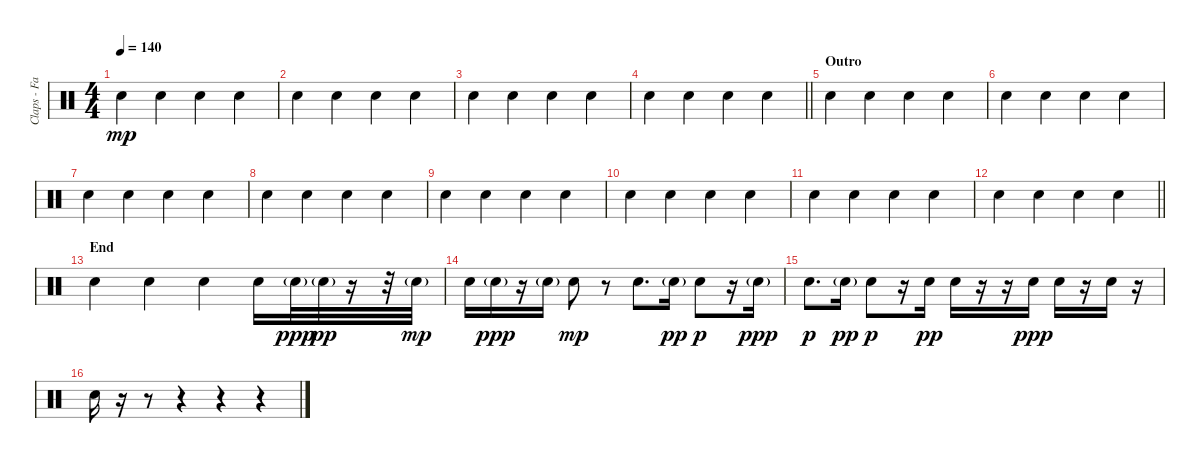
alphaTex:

\track ("Claps - Fans" "Claps - Fa") {instrument percussion}
\staff {score}
\articulation defaults
\ts (4 4)
\tempo 140
\clef neutral
\ks c "Hand Clap (hit)".4{dy mp} "Hand Clap (hit)".4 "Hand Clap (hit)".4 "Hand Clap (hit)".4
|
"Hand Clap (hit)".4 "Hand Clap (hit)".4 "Hand Clap (hit)".4 "Hand Clap (hit)".4 |
"Hand Clap (hit)".4 "Hand Clap (hit)".4 "Hand Clap (hit)".4 "Hand Clap (hit)".4 |
\barLineRight lightlight "Hand Clap (hit)".4 "Hand Clap (hit)".4 "Hand Clap (hit)".4 "Hand Clap (hit)".4
|
\section ("" "Outro")
"Hand Clap (hit)".4 "Hand Clap (hit)".4 "Hand Clap (hit)".4 "Hand Clap (hit)".4 |
"Hand Clap (hit)".4 "Hand Clap (hit)".4 "Hand Clap (hit)".4 "Hand Clap (hit)".4 |
"Hand Clap (hit)".4 "Hand Clap (hit)".4 "Hand Clap (hit)".4 "Hand Clap (hit)".4 |
"Hand Clap (hit)".4 "Hand Clap (hit)".4 "Hand Clap (hit)".4 "Hand Clap (hit)".4 |
"Hand Clap (hit)".4 "Hand Clap (hit)".4 "Hand Clap (hit)".4 "Hand Clap (hit)".4 |
"Hand Clap (hit)".4 "Hand Clap (hit)".4 "Hand Clap (hit)".4 "Hand Clap (hit)".4 |
"Hand Clap (hit)".4 "Hand Clap (hit)".4 "Hand Clap (hit)".4 "Hand Clap (hit)".4 |
\barLineRight lightlight "Hand Clap (hit)".4 "Hand Clap (hit)".4 "Hand Clap (hit)".4 "Hand Clap (hit)".4
|
\section ("" "End")
"Hand Clap (hit)".4 "Hand Clap (hit)".4 "Hand Clap (hit)".4 "Hand Clap (hit)".16 "Hand Clap (hit)"{g}.32{dy ppp} "Hand Clap (hit)"{g}.32{dy pp} r.16 r.32 "Hand Clap (hit)"{g}.32{dy mp} |
"Hand Clap (hit)".16 "Hand Clap (hit)"{g}.16{dy ppp} r.16 "Hand Clap (hit)"{g}.16 "Hand Clap (hit)".8{dy mp} r.8 "Hand Clap (hit)".8{d} "Hand Clap (hit)"{g}.16{dy pp} "Hand Clap (hit)".8{dy p} r.16 "Hand Clap (hit)"{g}.16{dy ppp} |
"Hand Clap (hit)".8{d dy p} "Hand Clap (hit)"{g}.16{dy pp} "Hand Clap (hit)".8{dy p} r.16 "Hand Clap (hit)".16{dy pp} "Hand Clap (hit)".16 r.16 r.16 "Hand Clap (hit)".16{dy ppp} "Hand Clap (hit)".16 r.16 "Hand Clap (hit)".16 r.16 |
"Hand Clap (hit)".16 r.16 r.8 r.4 r.4 r.4
